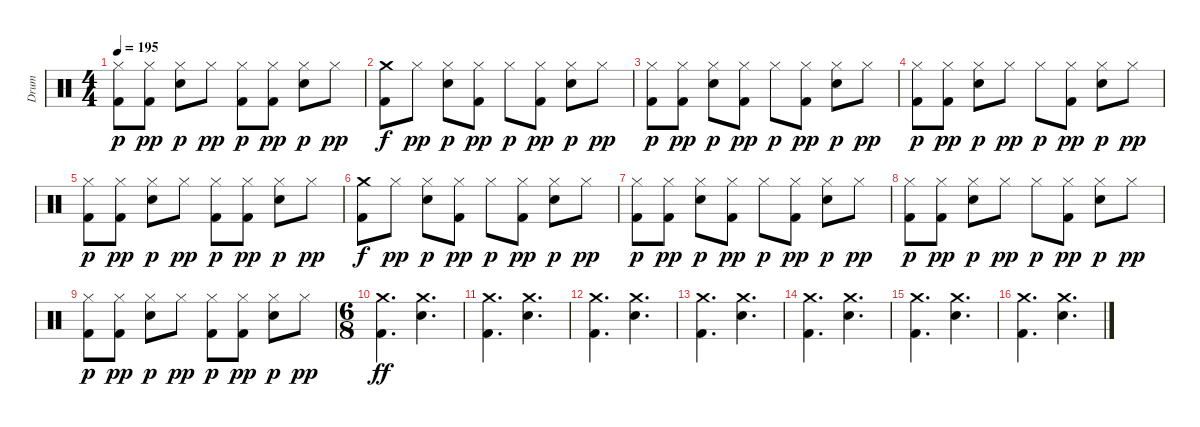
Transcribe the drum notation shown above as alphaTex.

\track ("Drum" "Drum") {instrument percussion}
\staff {score}
\articulation defaults
\ts (4 4)
\tempo 195
\clef neutral
\ks c
("Hi-Hat (closed)" "Kick (hit) 2").8{dy p} ("Hi-Hat (closed)" "Kick (hit) 2").8{dy pp} ("Hi-Hat (closed)" "Electric Snare (hit)").8{dy p} "Hi-Hat (closed)".8{dy pp} ("Hi-Hat (closed)" "Kick (hit) 2").8{dy p} ("Hi-Hat (closed)" "Kick (hit) 2").8{dy pp} ("Hi-Hat (closed)" "Electric Snare (hit)").8{dy p} "Hi-Hat (closed)".8{dy pp} |
("Crash medium (hit)" "Kick (hit) 2").8{dy f} "Hi-Hat (closed)".8{dy pp} ("Hi-Hat (closed)" "Electric Snare (hit)").8{dy p} ("Hi-Hat (closed)" "Kick (hit) 2").8{dy pp} "Hi-Hat (closed)".8{dy p} ("Hi-Hat (closed)" "Kick (hit) 2").8{dy pp} ("Hi-Hat (closed)" "Electric Snare (hit)").8{dy p} "Hi-Hat (closed)".8{dy pp} |
("Hi-Hat (closed)" "Kick (hit) 2").8{dy p} ("Hi-Hat (closed)" "Kick (hit) 2").8{dy pp} ("Hi-Hat (closed)" "Electric Snare (hit)").8{dy p} ("Hi-Hat (closed)" "Kick (hit) 2").8{dy pp} "Hi-Hat (closed)".8{dy p} ("Hi-Hat (closed)" "Kick (hit) 2").8{dy pp} ("Hi-Hat (closed)" "Electric Snare (hit)").8{dy p} "Hi-Hat (closed)".8{dy pp} |
("Hi-Hat (closed)" "Kick (hit) 2").8{dy p} ("Hi-Hat (closed)" "Kick (hit) 2").8{dy pp} ("Hi-Hat (closed)" "Electric Snare (hit)").8{dy p} "Hi-Hat (closed)".8{dy pp} "Hi-Hat (closed)".8{dy p} ("Hi-Hat (closed)" "Kick (hit) 2").8{dy pp} ("Hi-Hat (closed)" "Electric Snare (hit)").8{dy p} "Hi-Hat (closed)".8{dy pp} |
("Hi-Hat (closed)" "Kick (hit) 2").8{dy p} ("Hi-Hat (closed)" "Kick (hit) 2").8{dy pp} ("Hi-Hat (closed)" "Electric Snare (hit)").8{dy p} "Hi-Hat (closed)".8{dy pp} ("Hi-Hat (closed)" "Kick (hit) 2").8{dy p} ("Hi-Hat (closed)" "Kick (hit) 2").8{dy pp} ("Hi-Hat (closed)" "Electric Snare (hit)").8{dy p} "Hi-Hat (closed)".8{dy pp} |
("Crash medium (hit)" "Kick (hit) 2").8{dy f} "Hi-Hat (closed)".8{dy pp} ("Hi-Hat (closed)" "Electric Snare (hit)").8{dy p} ("Hi-Hat (closed)" "Kick (hit) 2").8{dy pp} "Hi-Hat (closed)".8{dy p} ("Hi-Hat (closed)" "Kick (hit) 2").8{dy pp} ("Hi-Hat (closed)" "Electric Snare (hit)").8{dy p} "Hi-Hat (closed)".8{dy pp} |
("Hi-Hat (closed)" "Kick (hit) 2").8{dy p} ("Hi-Hat (closed)" "Kick (hit) 2").8{dy pp} ("Hi-Hat (closed)" "Electric Snare (hit)").8{dy p} ("Hi-Hat (closed)" "Kick (hit) 2").8{dy pp} "Hi-Hat (closed)".8{dy p} ("Hi-Hat (closed)" "Kick (hit) 2").8{dy pp} ("Hi-Hat (closed)" "Electric Snare (hit)").8{dy p} "Hi-Hat (closed)".8{dy pp} |
("Hi-Hat (closed)" "Kick (hit) 2").8{dy p} ("Hi-Hat (closed)" "Kick (hit) 2").8{dy pp} ("Hi-Hat (closed)" "Electric Snare (hit)").8{dy p} "Hi-Hat (closed)".8{dy pp} "Hi-Hat (closed)".8{dy p} ("Hi-Hat (closed)" "Kick (hit) 2").8{dy pp} ("Hi-Hat (closed)" "Electric Snare (hit)").8{dy p} "Hi-Hat (closed)".8{dy pp} |
("Hi-Hat (closed)" "Kick (hit) 2").8{dy p} ("Hi-Hat (closed)" "Kick (hit) 2").8{dy pp} ("Hi-Hat (closed)" "Electric Snare (hit)").8{dy p} "Hi-Hat (closed)".8{dy pp} ("Hi-Hat (closed)" "Kick (hit) 2").8{dy p} ("Hi-Hat (closed)" "Kick (hit) 2").8{dy pp} ("Hi-Hat (closed)" "Electric Snare (hit)").8{dy p} "Hi-Hat (closed)".8{dy pp} |
\ts (6 8)
("Crash medium (hit)" "Kick (hit) 2").4{d dy ff} ("Crash medium (hit)" "Electric Snare (hit)").4{d} |
("Crash medium (hit)" "Kick (hit) 2").4{d} ("Crash medium (hit)" "Electric Snare (hit)").4{d} |
("Crash medium (hit)" "Kick (hit) 2").4{d} ("Crash medium (hit)" "Electric Snare (hit)").4{d} |
("Crash medium (hit)" "Kick (hit) 2").4{d} ("Crash medium (hit)" "Electric Snare (hit)").4{d} |
("Crash medium (hit)" "Kick (hit) 2").4{d} ("Crash medium (hit)" "Electric Snare (hit)").4{d} |
("Crash medium (hit)" "Kick (hit) 2").4{d} ("Crash medium (hit)" "Electric Snare (hit)").4{d} |
("Crash medium (hit)" "Kick (hit) 2").4{d} ("Crash medium (hit)" "Electric Snare (hit)").4{d}
